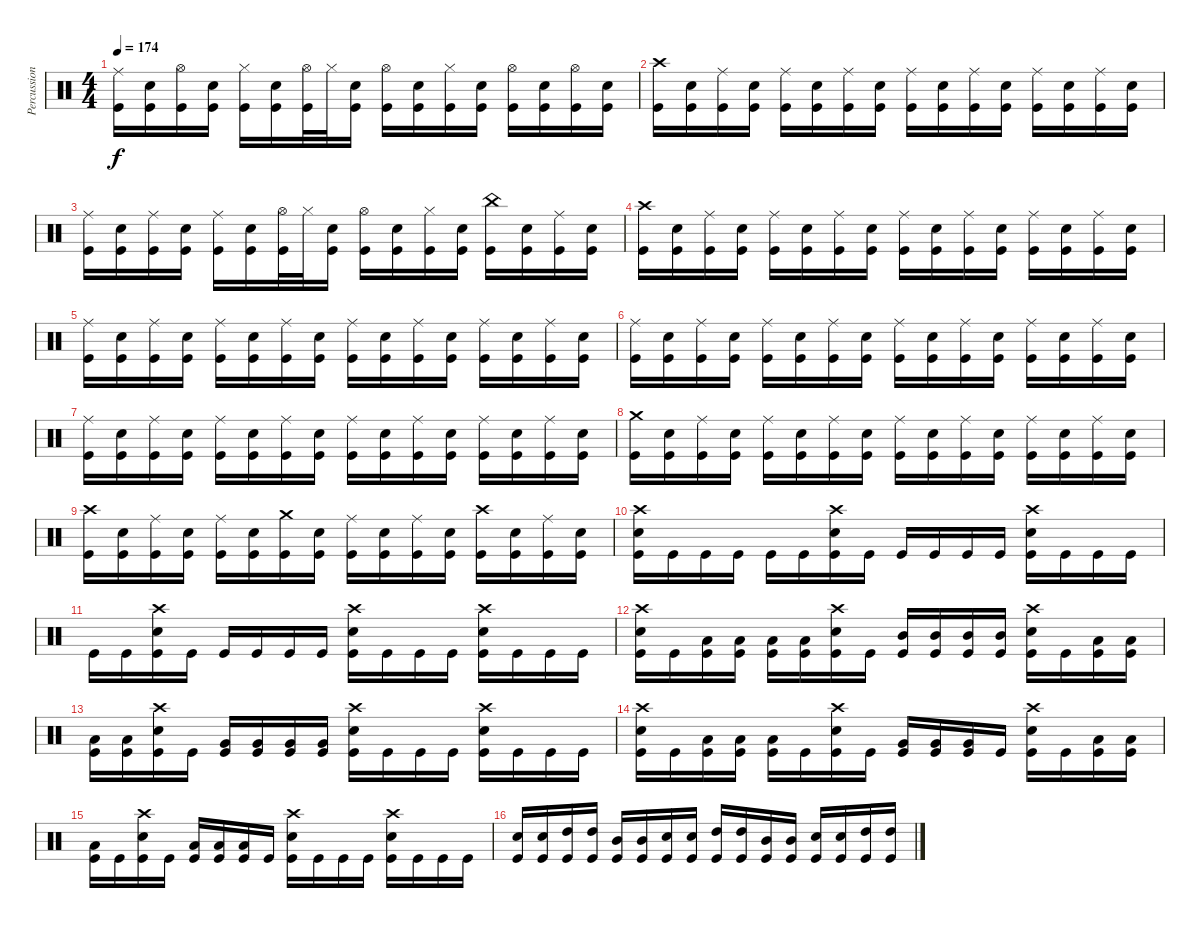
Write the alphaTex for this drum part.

\track ("Percussion" "Percussion") {instrument percussion}
\staff {score}
\articulation defaults
\ts (4 4)
\tempo 174
\clef neutral
\ks c
("Ride (middle)" "Kick (hit)").16{dy f} ("Electric Snare (hit)" "Kick (hit)").16 ("Hi-Hat (open)" "Kick (hit)").16 ("Electric Snare (hit)" "Kick (hit)").16 ("Hi-Hat (closed)" "Kick (hit)").16 ("Electric Snare (hit)" "Kick (hit)").16 ("Hi-Hat (open)" "Kick (hit)").32 "Hi-Hat (closed)".32 ("Electric Snare (hit)" "Kick (hit)").16 ("Hi-Hat (open)" "Kick (hit)").16 ("Electric Snare (hit)" "Kick (hit)").16 ("Hi-Hat (closed)" "Kick (hit)").16 ("Electric Snare (hit)" "Kick (hit)").16 ("Hi-Hat (open)" "Kick (hit)").16 ("Electric Snare (hit)" "Kick (hit)").16 ("Hi-Hat (open)" "Kick (hit)").16 ("Electric Snare (hit)" "Kick (hit)").16 |
("Crash high (hit)" "Kick (hit)").16 ("Electric Snare (hit)" "Kick (hit)").16 ("Ride (middle)" "Kick (hit)").16 ("Electric Snare (hit)" "Kick (hit)").16 ("Ride (middle)" "Kick (hit)").16 ("Electric Snare (hit)" "Kick (hit)").16 ("Ride (middle)" "Kick (hit)").16 ("Electric Snare (hit)" "Kick (hit)").16 ("Ride (middle)" "Kick (hit)").16 ("Electric Snare (hit)" "Kick (hit)").16 ("Ride (middle)" "Kick (hit)").16 ("Electric Snare (hit)" "Kick (hit)").16 ("Ride (middle)" "Kick (hit)").16 ("Electric Snare (hit)" "Kick (hit)").16 ("Ride (middle)" "Kick (hit)").16 ("Electric Snare (hit)" "Kick (hit)").16 |
("Ride (middle)" "Kick (hit)").16 ("Electric Snare (hit)" "Kick (hit)").16 ("Ride (middle)" "Kick (hit)").16 ("Electric Snare (hit)" "Kick (hit)").16 ("Ride (middle)" "Kick (hit)").16 ("Electric Snare (hit)" "Kick (hit)").16 ("Hi-Hat (open)" "Kick (hit)").32 "Hi-Hat (closed)".32 ("Electric Snare (hit)" "Kick (hit)").16 ("Hi-Hat (open)" "Kick (hit)").16 ("Electric Snare (hit)" "Kick (hit)").16 ("Hi-Hat (closed)" "Kick (hit)").16 ("Electric Snare (hit)" "Kick (hit)").16 ("China (hit)" "Kick (hit)").16 ("Electric Snare (hit)" "Kick (hit)").16 ("Ride (middle)" "Kick (hit)").16 ("Electric Snare (hit)" "Kick (hit)").16 |
("Crash high (hit)" "Kick (hit)").16 ("Electric Snare (hit)" "Kick (hit)").16 ("Ride (middle)" "Kick (hit)").16 ("Electric Snare (hit)" "Kick (hit)").16 ("Ride (middle)" "Kick (hit)").16 ("Electric Snare (hit)" "Kick (hit)").16 ("Ride (middle)" "Kick (hit)").16 ("Electric Snare (hit)" "Kick (hit)").16 ("Ride (middle)" "Kick (hit)").16 ("Electric Snare (hit)" "Kick (hit)").16 ("Ride (middle)" "Kick (hit)").16 ("Electric Snare (hit)" "Kick (hit)").16 ("Ride (middle)" "Kick (hit)").16 ("Electric Snare (hit)" "Kick (hit)").16 ("Ride (middle)" "Kick (hit)").16 ("Electric Snare (hit)" "Kick (hit)").16 |
("Ride (middle)" "Kick (hit)").16 ("Electric Snare (hit)" "Kick (hit)").16 ("Ride (middle)" "Kick (hit)").16 ("Electric Snare (hit)" "Kick (hit)").16 ("Ride (middle)" "Kick (hit)").16 ("Electric Snare (hit)" "Kick (hit)").16 ("Ride (middle)" "Kick (hit)").16 ("Electric Snare (hit)" "Kick (hit)").16 ("Ride (middle)" "Kick (hit)").16 ("Electric Snare (hit)" "Kick (hit)").16 ("Ride (middle)" "Kick (hit)").16 ("Electric Snare (hit)" "Kick (hit)").16 ("Ride (middle)" "Kick (hit)").16 ("Electric Snare (hit)" "Kick (hit)").16 ("Ride (middle)" "Kick (hit)").16 ("Electric Snare (hit)" "Kick (hit)").16 |
("Ride (middle)" "Kick (hit)").16 ("Electric Snare (hit)" "Kick (hit)").16 ("Ride (middle)" "Kick (hit)").16 ("Electric Snare (hit)" "Kick (hit)").16 ("Ride (middle)" "Kick (hit)").16 ("Electric Snare (hit)" "Kick (hit)").16 ("Ride (middle)" "Kick (hit)").16 ("Electric Snare (hit)" "Kick (hit)").16 ("Ride (middle)" "Kick (hit)").16 ("Electric Snare (hit)" "Kick (hit)").16 ("Ride (middle)" "Kick (hit)").16 ("Electric Snare (hit)" "Kick (hit)").16 ("Ride (middle)" "Kick (hit)").16 ("Electric Snare (hit)" "Kick (hit)").16 ("Ride (middle)" "Kick (hit)").16 ("Electric Snare (hit)" "Kick (hit)").16 |
("Ride (middle)" "Kick (hit)").16 ("Electric Snare (hit)" "Kick (hit)").16 ("Ride (middle)" "Kick (hit)").16 ("Electric Snare (hit)" "Kick (hit)").16 ("Ride (middle)" "Kick (hit)").16 ("Electric Snare (hit)" "Kick (hit)").16 ("Ride (middle)" "Kick (hit)").16 ("Electric Snare (hit)" "Kick (hit)").16 ("Ride (middle)" "Kick (hit)").16 ("Electric Snare (hit)" "Kick (hit)").16 ("Ride (middle)" "Kick (hit)").16 ("Electric Snare (hit)" "Kick (hit)").16 ("Ride (middle)" "Kick (hit)").16 ("Electric Snare (hit)" "Kick (hit)").16 ("Ride (middle)" "Kick (hit)").16 ("Electric Snare (hit)" "Kick (hit)").16 |
("Crash medium (hit)" "Kick (hit)").16 ("Electric Snare (hit)" "Kick (hit)").16 ("Ride (middle)" "Kick (hit)").16 ("Electric Snare (hit)" "Kick (hit)").16 ("Ride (middle)" "Kick (hit)").16 ("Electric Snare (hit)" "Kick (hit)").16 ("Ride (middle)" "Kick (hit)").16 ("Electric Snare (hit)" "Kick (hit)").16 ("Ride (middle)" "Kick (hit)").16 ("Electric Snare (hit)" "Kick (hit)").16 ("Ride (middle)" "Kick (hit)").16 ("Electric Snare (hit)" "Kick (hit)").16 ("Ride (middle)" "Kick (hit)").16 ("Electric Snare (hit)" "Kick (hit)").16 ("Ride (middle)" "Kick (hit)").16 ("Electric Snare (hit)" "Kick (hit)").16 |
("Crash high (hit)" "Kick (hit)").16 ("Electric Snare (hit)" "Kick (hit)").16 ("Ride (middle)" "Kick (hit)").16 ("Electric Snare (hit)" "Kick (hit)").16 ("Ride (middle)" "Kick (hit)").16 ("Electric Snare (hit)" "Kick (hit)").16 ("Crash medium (hit)" "Kick (hit)").16 ("Electric Snare (hit)" "Kick (hit)").16 ("Ride (middle)" "Kick (hit)").16 ("Electric Snare (hit)" "Kick (hit)").16 ("Ride (middle)" "Kick (hit)").16 ("Electric Snare (hit)" "Kick (hit)").16 ("Crash high (hit)" "Kick (hit)").16 ("Electric Snare (hit)" "Kick (hit)").16 ("Ride (middle)" "Kick (hit)").16 ("Electric Snare (hit)" "Kick (hit)").16 |
("Crash high (hit)" "Electric Snare (hit)" "Kick (hit)").16 "Kick (hit)".16 "Kick (hit)".16 "Kick (hit)".16 "Kick (hit)".16 "Kick (hit)".16 ("Crash high (hit)" "Electric Snare (hit)" "Kick (hit)").16 "Kick (hit)".16 "Kick (hit)".16 "Kick (hit)".16 "Kick (hit)".16 "Kick (hit)".16 ("Crash high (hit)" "Electric Snare (hit)" "Kick (hit)").16 "Kick (hit)".16 "Kick (hit)".16 "Kick (hit)".16 |
"Kick (hit)".16 "Kick (hit)".16 ("Crash high (hit)" "Electric Snare (hit)" "Kick (hit)").16 "Kick (hit)".16 "Kick (hit)".16 "Kick (hit)".16 "Kick (hit)".16 "Kick (hit)".16 ("Crash high (hit)" "Electric Snare (hit)" "Kick (hit)").16 "Kick (hit)".16 "Kick (hit)".16 "Kick (hit)".16 ("Crash high (hit)" "Electric Snare (hit)" "Kick (hit)").16 "Kick (hit)".16 "Kick (hit)".16 "Kick (hit)".16 |
("Crash high (hit)" "Electric Snare (hit)" "Kick (hit)").16 "Kick (hit)".16 ("Low Tom (hit)" "Kick (hit)").16 ("Low Tom (hit)" "Kick (hit)").16 ("Low Tom (hit)" "Kick (hit)").16 ("Low Tom (hit)" "Kick (hit)").16 ("Crash high (hit)" "Electric Snare (hit)" "Kick (hit)").16 "Kick (hit)".16 ("Mid Tom (hit)" "Kick (hit)").16 ("Mid Tom (hit)" "Kick (hit)").16 ("Mid Tom (hit)" "Kick (hit)").16 ("Mid Tom (hit)" "Kick (hit)").16 ("Crash high (hit)" "Electric Snare (hit)" "Kick (hit)").16 "Kick (hit)".16 ("Low Tom (hit)" "Kick (hit)").16 ("Low Tom (hit)" "Kick (hit)").16 |
("Low Tom (hit)" "Kick (hit)").16 ("Low Tom (hit)" "Kick (hit)").16 ("Crash high (hit)" "Electric Snare (hit)" "Kick (hit)").16 "Kick (hit)".16 ("Very Low Tom (hit)" "Kick (hit)").16 ("Very Low Tom (hit)" "Kick (hit)").16 ("Very Low Tom (hit)" "Kick (hit)").16 ("Very Low Tom (hit)" "Kick (hit)").16 ("Crash high (hit)" "Electric Snare (hit)" "Kick (hit)").16 "Kick (hit)".16 "Kick (hit)".16 "Kick (hit)".16 ("Crash high (hit)" "Electric Snare (hit)" "Kick (hit)").16 "Kick (hit)".16 "Kick (hit)".16 "Kick (hit)".16 |
("Crash high (hit)" "Electric Snare (hit)" "Kick (hit)").16 "Kick (hit)".16 ("Low Tom (hit)" "Kick (hit)").16 ("Low Tom (hit)" "Kick (hit)").16 ("Low Tom (hit)" "Kick (hit)").16 "Kick (hit)".16 ("Crash high (hit)" "Electric Snare (hit)" "Kick (hit)").16 "Kick (hit)".16 ("Very Low Tom (hit)" "Kick (hit)").16 ("Very Low Tom (hit)" "Kick (hit)").16 ("Very Low Tom (hit)" "Kick (hit)").16 "Kick (hit)".16 ("Crash high (hit)" "Electric Snare (hit)" "Kick (hit)").16 "Kick (hit)".16 ("Low Floor Tom (hit)" "Kick (hit)").16 ("Low Floor Tom (hit)" "Kick (hit)").16 |
("Low Floor Tom (hit)" "Kick (hit)").16 "Kick (hit)".16 ("Crash high (hit)" "Electric Snare (hit)" "Kick (hit)").16 "Kick (hit)".16 ("Low Floor Tom (hit)" "Kick (hit)").16 ("Low Floor Tom (hit)" "Kick (hit)").16 ("Low Floor Tom (hit)" "Kick (hit)").16 "Kick (hit)".16 ("Crash high (hit)" "Electric Snare (hit)" "Kick (hit)").16 "Kick (hit)".16 "Kick (hit)".16 "Kick (hit)".16 ("Crash high (hit)" "Electric Snare (hit)" "Kick (hit)").16 "Kick (hit)".16 "Kick (hit)".16 "Kick (hit)".16 |
("Electric Snare (hit)" "Kick (hit)").16 ("Electric Snare (hit)" "Kick (hit)").16 ("High Tom (hit)" "Kick (hit)").16 ("High Tom (hit)" "Kick (hit)").16 ("Mid Tom (hit)" "Kick (hit)").16 ("Mid Tom (hit)" "Kick (hit)").16 ("Electric Snare (hit)" "Kick (hit)").16 ("Electric Snare (hit)" "Kick (hit)").16 ("High Tom (hit)" "Kick (hit)").16 ("High Tom (hit)" "Kick (hit)").16 ("Mid Tom (hit)" "Kick (hit)").16 ("Mid Tom (hit)" "Kick (hit)").16 ("Electric Snare (hit)" "Kick (hit)").16 ("Electric Snare (hit)" "Kick (hit)").16 ("High Tom (hit)" "Kick (hit)").16 ("High Tom (hit)" "Kick (hit)").16
